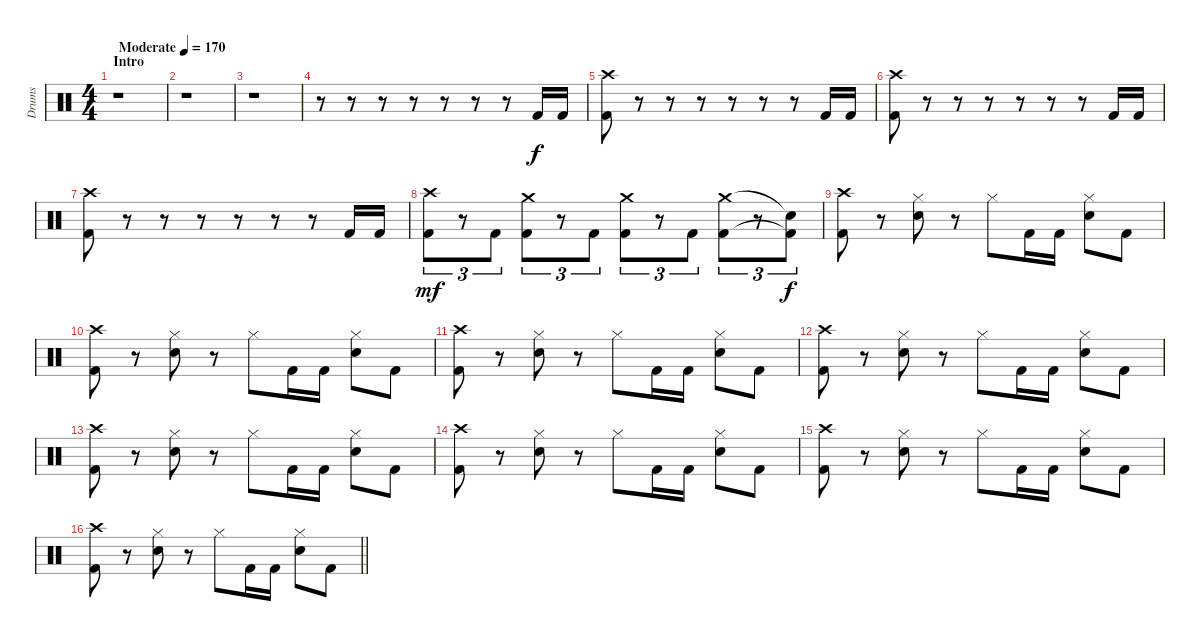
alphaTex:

\track ("Drums" "Drums") {instrument percussion}
\staff {score}
\articulation defaults
\ts (4 4)
\section ("" "Intro")
\tempo (170 "Moderate")
\clef neutral
\ks c
r.1{dy f} |
r.1 |
r.1 |
r.8 r.8 r.8 r.8 r.8 r.8 r.8 "Kick (hit) 2".16 "Kick (hit) 2".16 |
("Kick (hit) 2" "Crash high (hit)").8 r.8 r.8 r.8 r.8 r.8 r.8 "Kick (hit) 2".16 "Kick (hit) 2".16 |
("Kick (hit) 2" "Crash high (hit)").8 r.8 r.8 r.8 r.8 r.8 r.8 "Kick (hit) 2".16 "Kick (hit) 2".16 |
("Kick (hit) 2" "Crash high (hit)").8 r.8 r.8 r.8 r.8 r.8 r.8 "Kick (hit) 2".16 "Kick (hit) 2".16 |
("Crash high (hit)" "Kick (hit) 2").8{tu (3 2) dy mf} r.8{tu (3 2)} "Kick (hit) 2".8{tu (3 2)} ("Crash medium (hit)" "Kick (hit) 2").8{tu (3 2)} r.8{tu (3 2)} "Kick (hit) 2".8{tu (3 2)} ("Crash medium (hit)" "Kick (hit) 2").8{tu (3 2)} r.8{tu (3 2)} "Kick (hit) 2".8{tu (3 2)} ("Crash medium (hit)" "Kick (hit) 2").8{tu (3 2)} r.8{tu (3 2)} ("Snare (hit)"{t} "Kick (hit) 2"{t}).8{tu (3 2) dy f} |
("Crash high (hit)" "Kick (hit) 2").8 r.8 ("Hi-Hat (closed)" "Snare (hit) 2").8 r.8 "Hi-Hat (closed)".8 "Kick (hit) 2".16 "Kick (hit) 2".16 ("Hi-Hat (closed)" "Snare (hit) 2").8 "Kick (hit) 2".8 |
("Crash high (hit)" "Kick (hit) 2").8 r.8 ("Hi-Hat (closed)" "Snare (hit) 2").8 r.8 "Hi-Hat (closed)".8 "Kick (hit) 2".16 "Kick (hit) 2".16 ("Hi-Hat (closed)" "Snare (hit) 2").8 "Kick (hit) 2".8 |
("Crash high (hit)" "Kick (hit) 2").8 r.8 ("Hi-Hat (closed)" "Snare (hit) 2").8 r.8 "Hi-Hat (closed)".8 "Kick (hit) 2".16 "Kick (hit) 2".16 ("Hi-Hat (closed)" "Snare (hit) 2").8 "Kick (hit) 2".8 |
("Crash high (hit)" "Kick (hit) 2").8 r.8 ("Hi-Hat (closed)" "Snare (hit) 2").8 r.8 "Hi-Hat (closed)".8 "Kick (hit) 2".16 "Kick (hit) 2".16 ("Hi-Hat (closed)" "Snare (hit) 2").8 "Kick (hit) 2".8 |
("Crash high (hit)" "Kick (hit) 2").8 r.8 ("Hi-Hat (closed)" "Snare (hit) 2").8 r.8 "Hi-Hat (closed)".8 "Kick (hit) 2".16 "Kick (hit) 2".16 ("Hi-Hat (closed)" "Snare (hit) 2").8 "Kick (hit) 2".8 |
("Crash high (hit)" "Kick (hit) 2").8 r.8 ("Hi-Hat (closed)" "Snare (hit) 2").8 r.8 "Hi-Hat (closed)".8 "Kick (hit) 2".16 "Kick (hit) 2".16 ("Hi-Hat (closed)" "Snare (hit) 2").8 "Kick (hit) 2".8 |
("Crash high (hit)" "Kick (hit) 2").8 r.8 ("Hi-Hat (closed)" "Snare (hit) 2").8 r.8 "Hi-Hat (closed)".8 "Kick (hit) 2".16 "Kick (hit) 2".16 ("Hi-Hat (closed)" "Snare (hit) 2").8 "Kick (hit) 2".8 |
\barLineRight lightlight
("Crash high (hit)" "Kick (hit) 2").8 r.8 ("Hi-Hat (closed)" "Snare (hit) 2").8 r.8 "Hi-Hat (closed)".8 "Kick (hit) 2".16 "Kick (hit) 2".16 ("Hi-Hat (closed)" "Snare (hit) 2").8 "Kick (hit) 2".8
